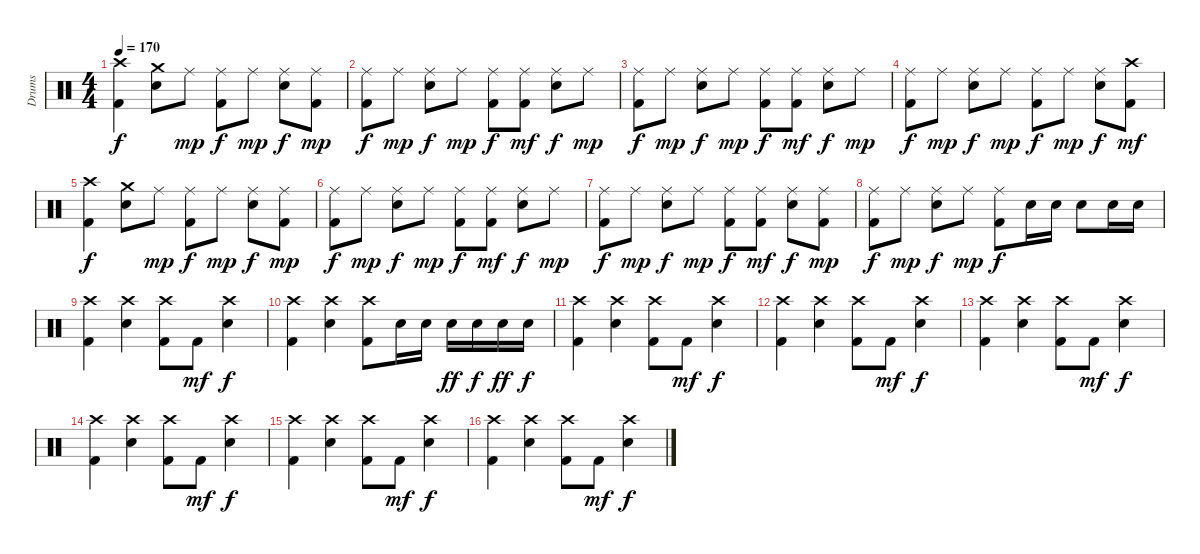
\track ("Drums" "Drums") {instrument percussion}
\staff {score}
\articulation defaults
\ts (4 4)
\tempo 170
\clef neutral
\ks c
("Crash high (hit)" "Kick (hit) 2").4{dy f} ("Crash medium (hit)" "Snare (hit) 2").8 "Ride (middle)".8{dy mp} ("Ride (middle)" "Kick (hit) 2").8{dy f} "Ride (middle)".8{dy mp} ("Ride (middle)" "Snare (hit) 2").8{dy f} ("Ride (middle)" "Kick (hit) 2").8{dy mp} |
("Ride (middle)" "Kick (hit) 2").8{dy f} "Ride (middle)".8{dy mp} ("Ride (middle)" "Snare (hit) 2").8{dy f} "Ride (middle)".8{dy mp} ("Ride (middle)" "Kick (hit) 2").8{dy f} ("Ride (middle)" "Kick (hit) 2").8{dy mf} ("Ride (middle)" "Snare (hit) 2").8{dy f} "Ride (middle)".8{dy mp} |
("Ride (middle)" "Kick (hit) 2").8{dy f} "Ride (middle)".8{dy mp} ("Ride (middle)" "Snare (hit) 2").8{dy f} "Ride (middle)".8{dy mp} ("Ride (middle)" "Kick (hit) 2").8{dy f} ("Ride (middle)" "Kick (hit) 2").8{dy mf} ("Ride (middle)" "Snare (hit) 2").8{dy f} "Ride (middle)".8{dy mp} |
("Ride (middle)" "Kick (hit) 2").8{dy f} "Ride (middle)".8{dy mp} ("Ride (middle)" "Snare (hit) 2").8{dy f} "Ride (middle)".8{dy mp} ("Ride (middle)" "Kick (hit) 2").8{dy f} "Ride (middle)".8{dy mp} ("Ride (middle)" "Snare (hit) 2").8{dy f} ("Crash high (hit)" "Kick (hit) 2").8{dy mf} |
("Crash high (hit)" "Kick (hit) 2").4{dy f} ("Crash medium (hit)" "Snare (hit) 2").8 "Ride (middle)".8{dy mp} ("Ride (middle)" "Kick (hit) 2").8{dy f} "Ride (middle)".8{dy mp} ("Ride (middle)" "Snare (hit) 2").8{dy f} ("Ride (middle)" "Kick (hit) 2").8{dy mp} |
("Ride (middle)" "Kick (hit) 2").8{dy f} "Ride (middle)".8{dy mp} ("Ride (middle)" "Snare (hit) 2").8{dy f} "Ride (middle)".8{dy mp} ("Ride (middle)" "Kick (hit) 2").8{dy f} ("Ride (middle)" "Kick (hit) 2").8{dy mf} ("Ride (middle)" "Snare (hit) 2").8{dy f} "Ride (middle)".8{dy mp} |
("Ride (middle)" "Kick (hit) 2").8{dy f} "Ride (middle)".8{dy mp} ("Ride (middle)" "Snare (hit) 2").8{dy f} "Ride (middle)".8{dy mp} ("Ride (middle)" "Kick (hit) 2").8{dy f} ("Ride (middle)" "Kick (hit) 2").8{dy mf} ("Ride (middle)" "Snare (hit) 2").8{dy f} ("Ride (middle)" "Kick (hit) 2").8{dy mp} |
("Ride (middle)" "Kick (hit) 2").8{dy f} "Ride (middle)".8{dy mp} ("Ride (middle)" "Snare (hit) 2").8{dy f} "Ride (middle)".8{dy mp} ("Ride (middle)" "Kick (hit) 2").8{dy f} "Snare (hit) 2".16 "Snare (hit) 2".16 "Snare (hit) 2".8 "Snare (hit) 2".16 "Snare (hit) 2".16 |
("Crash high (hit)" "Kick (hit) 2").4 ("Crash high (hit)" "Snare (hit) 2").4 ("Crash high (hit)" "Kick (hit) 2").8 "Kick (hit) 2".8{dy mf} ("Crash high (hit)" "Snare (hit) 2").4{dy f} |
("Crash high (hit)" "Kick (hit) 2").4 ("Crash high (hit)" "Snare (hit) 2").4 ("Crash high (hit)" "Kick (hit) 2").8 "Snare (hit) 2".16 "Snare (hit) 2".16 "Snare (hit) 2".16{dy ff} "Snare (hit) 2".16{dy f} "Snare (hit) 2".16{dy ff} "Snare (hit) 2".16{dy f} |
("Crash high (hit)" "Kick (hit) 2").4 ("Crash high (hit)" "Snare (hit) 2").4 ("Crash high (hit)" "Kick (hit) 2").8 "Kick (hit) 2".8{dy mf} ("Crash high (hit)" "Snare (hit) 2").4{dy f} |
("Crash high (hit)" "Kick (hit) 2").4 ("Crash high (hit)" "Snare (hit) 2").4 ("Crash high (hit)" "Kick (hit) 2").8 "Kick (hit) 2".8{dy mf} ("Crash high (hit)" "Snare (hit) 2").4{dy f} |
("Crash high (hit)" "Kick (hit) 2").4 ("Crash high (hit)" "Snare (hit) 2").4 ("Crash high (hit)" "Kick (hit) 2").8 "Kick (hit) 2".8{dy mf} ("Crash high (hit)" "Snare (hit) 2").4{dy f} |
("Crash high (hit)" "Kick (hit) 2").4 ("Crash high (hit)" "Snare (hit) 2").4 ("Crash high (hit)" "Kick (hit) 2").8 "Kick (hit) 2".8{dy mf} ("Crash high (hit)" "Snare (hit) 2").4{dy f} |
("Crash high (hit)" "Kick (hit) 2").4 ("Crash high (hit)" "Snare (hit) 2").4 ("Crash high (hit)" "Kick (hit) 2").8 "Kick (hit) 2".8{dy mf} ("Crash high (hit)" "Snare (hit) 2").4{dy f} |
("Crash high (hit)" "Kick (hit) 2").4 ("Crash high (hit)" "Snare (hit) 2").4 ("Crash high (hit)" "Kick (hit) 2").8 "Kick (hit) 2".8{dy mf} ("Crash high (hit)" "Snare (hit) 2").4{dy f}
